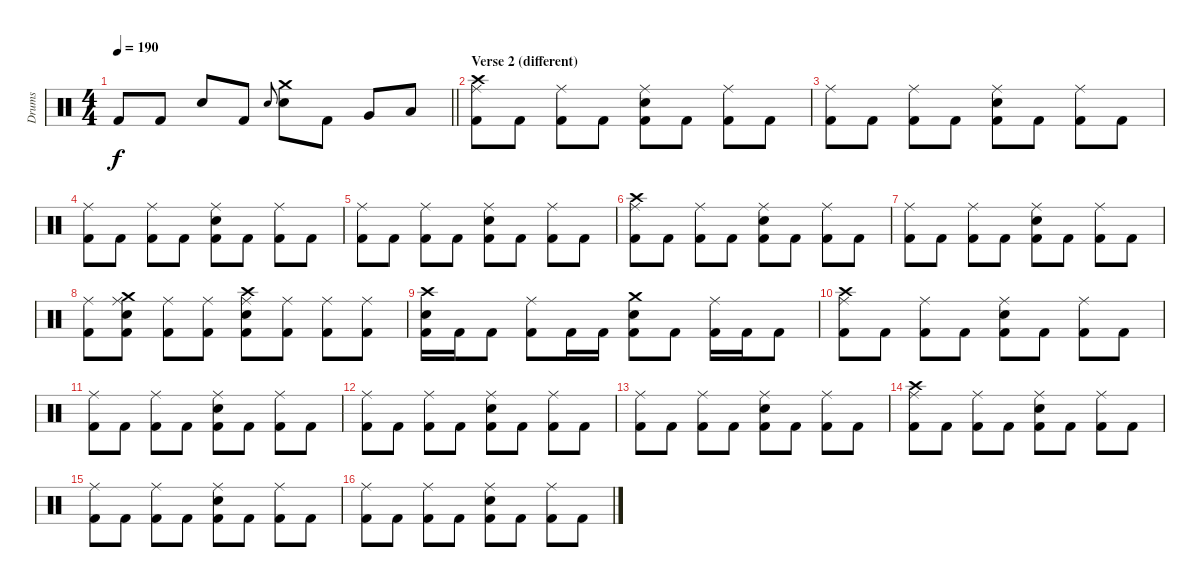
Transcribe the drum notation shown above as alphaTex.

\track ("Drums" "Drums") {instrument percussion}
\staff {score}
\articulation defaults
\ts (4 4)
\tempo 190
\clef neutral
\barLineRight lightlight
\ks c "Kick (hit) 2".8{dy f} "Kick (hit) 2".8 "Snare (hit) 2".8 "Kick (hit) 2".8 "Snare (hit) 2".8{gr onbeat}
("Crash medium (hit)" "Snare (hit) 2").8 "Kick (hit) 2".8 "Very Low Tom (hit)".8 "Low Floor Tom (hit)".8 |
\section ("" "Verse 2 (different)")
("Crash high (hit)" "Ride (middle)" "Kick (hit) 2").8 "Kick (hit) 2".8 ("Ride (middle)" "Kick (hit) 2").8 "Kick (hit) 2".8 ("Ride (middle)" "Snare (hit) 2" "Kick (hit) 2").8 "Kick (hit) 2".8 ("Ride (middle)" "Kick (hit) 2").8 "Kick (hit) 2".8 |
("Ride (middle)" "Kick (hit) 2").8 "Kick (hit) 2".8 ("Ride (middle)" "Kick (hit) 2").8 "Kick (hit) 2".8 ("Ride (middle)" "Snare (hit) 2" "Kick (hit) 2").8 "Kick (hit) 2".8 ("Ride (middle)" "Kick (hit) 2").8 "Kick (hit) 2".8 |
("Ride (middle)" "Kick (hit) 2").8 "Kick (hit) 2".8 ("Ride (middle)" "Kick (hit) 2").8 "Kick (hit) 2".8 ("Ride (middle)" "Snare (hit) 2" "Kick (hit) 2").8 "Kick (hit) 2".8 ("Ride (middle)" "Kick (hit) 2").8 "Kick (hit) 2".8 |
("Ride (middle)" "Kick (hit) 2").8 "Kick (hit) 2".8 ("Ride (middle)" "Kick (hit) 2").8 "Kick (hit) 2".8 ("Ride (middle)" "Snare (hit) 2" "Kick (hit) 2").8 "Kick (hit) 2".8 ("Ride (middle)" "Kick (hit) 2").8 "Kick (hit) 2".8 |
("Crash high (hit)" "Ride (middle)" "Kick (hit) 2").8 "Kick (hit) 2".8 ("Ride (middle)" "Kick (hit) 2").8 "Kick (hit) 2".8 ("Ride (middle)" "Snare (hit) 2" "Kick (hit) 2").8 "Kick (hit) 2".8 ("Ride (middle)" "Kick (hit) 2").8 "Kick (hit) 2".8 |
("Ride (middle)" "Kick (hit) 2").8 "Kick (hit) 2".8 ("Ride (middle)" "Kick (hit) 2").8 "Kick (hit) 2".8 ("Ride (middle)" "Snare (hit) 2" "Kick (hit) 2").8 "Kick (hit) 2".8 ("Ride (middle)" "Kick (hit) 2").8 "Kick (hit) 2".8 |
("Ride (middle)" "Kick (hit) 2").8 ("Crash medium (hit)" "Ride (middle)" "Snare (hit) 2" "Kick (hit) 2").8 ("Ride (middle)" "Kick (hit) 2").8 ("Ride (middle)" "Kick (hit) 2").8 ("Crash high (hit)" "Ride (middle)" "Snare (hit) 2" "Kick (hit) 2").8 ("Ride (middle)" "Kick (hit) 2").8 ("Ride (middle)" "Kick (hit) 2").8 ("Ride (middle)" "Kick (hit) 2").8 |
("Crash high (hit)" "Snare (hit) 2" "Kick (hit) 2").16 "Kick (hit) 2".16 "Kick (hit) 2".8 ("Ride (middle)" "Kick (hit) 2").8 "Kick (hit) 2".16 "Kick (hit) 2".16 ("Crash medium (hit)" "Snare (hit) 2" "Kick (hit) 2").8 "Kick (hit) 2".8 ("Ride (middle)" "Kick (hit) 2").16 "Kick (hit) 2".16 "Kick (hit) 2".8 |
("Crash high (hit)" "Ride (middle)" "Kick (hit) 2").8 "Kick (hit) 2".8 ("Ride (middle)" "Kick (hit) 2").8 "Kick (hit) 2".8 ("Ride (middle)" "Snare (hit) 2" "Kick (hit) 2").8 "Kick (hit) 2".8 ("Ride (middle)" "Kick (hit) 2").8 "Kick (hit) 2".8 |
("Ride (middle)" "Kick (hit) 2").8 "Kick (hit) 2".8 ("Ride (middle)" "Kick (hit) 2").8 "Kick (hit) 2".8 ("Ride (middle)" "Snare (hit) 2" "Kick (hit) 2").8 "Kick (hit) 2".8 ("Ride (middle)" "Kick (hit) 2").8 "Kick (hit) 2".8 |
("Ride (middle)" "Kick (hit) 2").8 "Kick (hit) 2".8 ("Ride (middle)" "Kick (hit) 2").8 "Kick (hit) 2".8 ("Ride (middle)" "Snare (hit) 2" "Kick (hit) 2").8 "Kick (hit) 2".8 ("Ride (middle)" "Kick (hit) 2").8 "Kick (hit) 2".8 |
("Ride (middle)" "Kick (hit) 2").8 "Kick (hit) 2".8 ("Ride (middle)" "Kick (hit) 2").8 "Kick (hit) 2".8 ("Ride (middle)" "Snare (hit) 2" "Kick (hit) 2").8 "Kick (hit) 2".8 ("Ride (middle)" "Kick (hit) 2").8 "Kick (hit) 2".8 |
("Crash high (hit)" "Ride (middle)" "Kick (hit) 2").8 "Kick (hit) 2".8 ("Ride (middle)" "Kick (hit) 2").8 "Kick (hit) 2".8 ("Ride (middle)" "Snare (hit) 2" "Kick (hit) 2").8 "Kick (hit) 2".8 ("Ride (middle)" "Kick (hit) 2").8 "Kick (hit) 2".8 |
("Ride (middle)" "Kick (hit) 2").8 "Kick (hit) 2".8 ("Ride (middle)" "Kick (hit) 2").8 "Kick (hit) 2".8 ("Ride (middle)" "Snare (hit) 2" "Kick (hit) 2").8 "Kick (hit) 2".8 ("Ride (middle)" "Kick (hit) 2").8 "Kick (hit) 2".8 |
("Ride (middle)" "Kick (hit) 2").8 "Kick (hit) 2".8 ("Ride (middle)" "Kick (hit) 2").8 "Kick (hit) 2".8 ("Ride (middle)" "Snare (hit) 2" "Kick (hit) 2").8 "Kick (hit) 2".8 ("Ride (middle)" "Kick (hit) 2").8 "Kick (hit) 2".8
